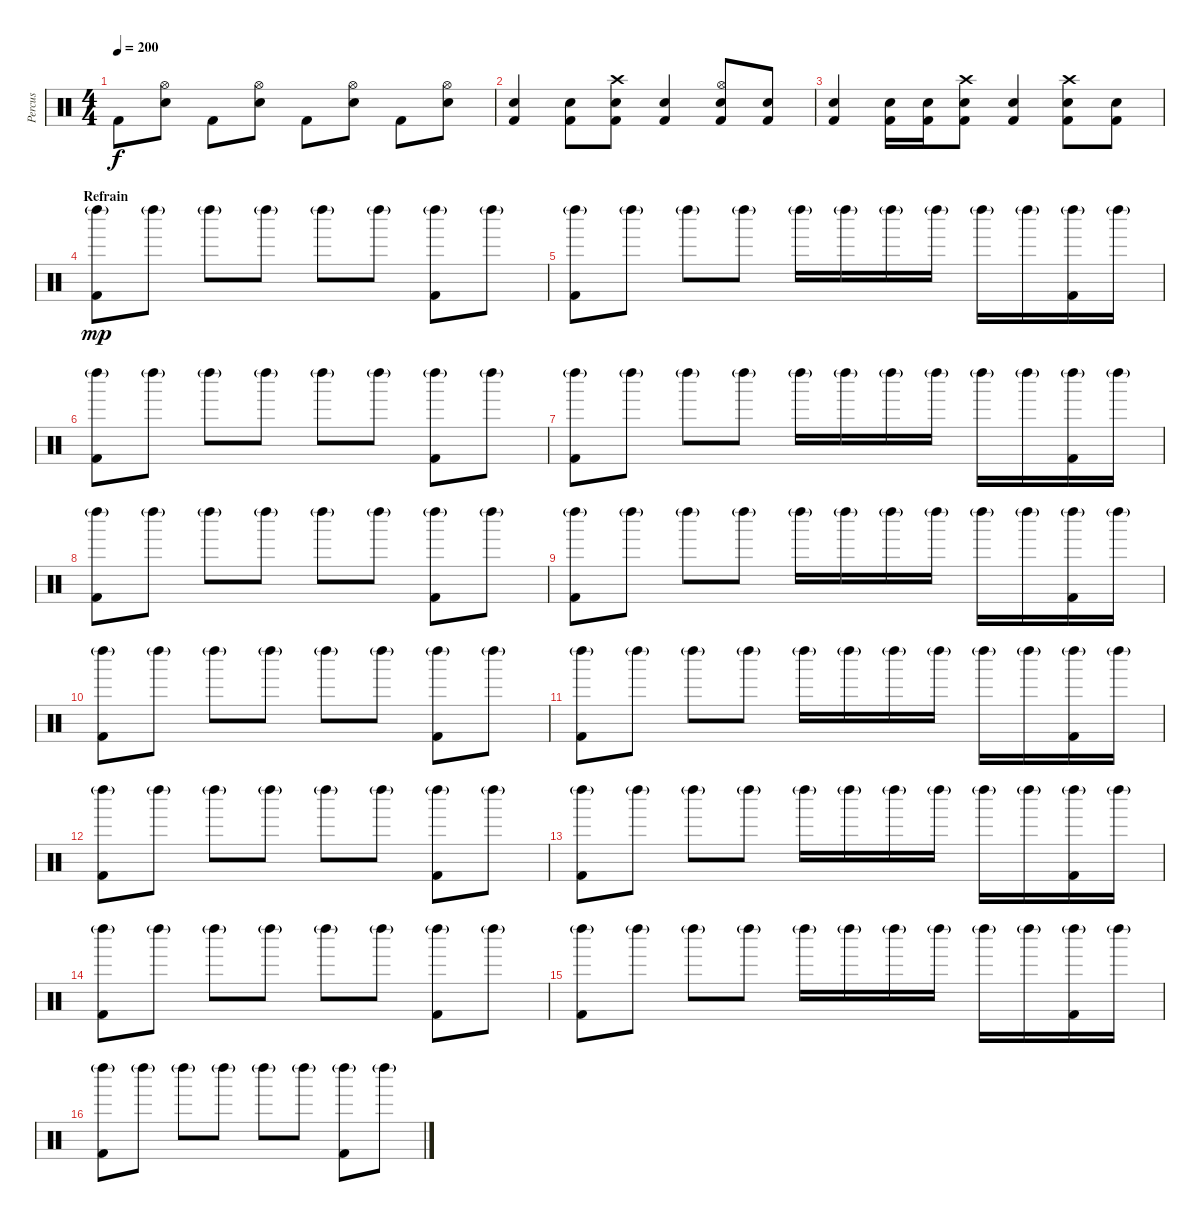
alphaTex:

\track ("Percus" "Percus") {instrument percussion}
\staff {score}
\articulation defaults
\ts (4 4)
\tempo 200
\clef neutral
\ks c "Kick (hit) 2".8{dy f}
("Hi-Hat (open)" "Snare (hit) 2").8 "Kick (hit) 2".8 ("Hi-Hat (open)" "Snare (hit) 2").8 "Kick (hit) 2".8 ("Hi-Hat (open)" "Snare (hit) 2").8 "Kick (hit) 2".8 ("Hi-Hat (open)" "Snare (hit) 2").8 |
("Snare (hit) 2" "Kick (hit) 2").4 ("Snare (hit) 2" "Kick (hit) 2").8 ("Crash high (hit)" "Snare (hit) 2" "Kick (hit) 2").8 ("Snare (hit) 2" "Kick (hit) 2").4 ("Hi-Hat (open)" "Snare (hit) 2" "Kick (hit) 2").8 ("Snare (hit) 2" "Kick (hit) 2").8 |
("Snare (hit) 2" "Kick (hit) 2").4 ("Snare (hit) 2" "Kick (hit) 2").16 ("Snare (hit) 2" "Kick (hit) 2").16 ("Crash high (hit)" "Snare (hit) 2" "Kick (hit) 2").8 ("Snare (hit) 2" "Kick (hit) 2").4 ("Crash high (hit)" "Snare (hit) 2" "Kick (hit) 2").8 ("Snare (hit) 2" "Kick (hit) 2").8 |
\section ("" "Refrain")
("Left Maraca (hit)"{g} "Kick (hit) 2").8{dy mp} "Left Maraca (hit)"{g}.8 "Left Maraca (hit)"{g}.8 "Left Maraca (hit)"{g}.8 "Left Maraca (hit)"{g}.8 "Left Maraca (hit)"{g}.8 ("Left Maraca (hit)"{g} "Kick (hit) 2").8 "Left Maraca (hit)"{g}.8 |
("Left Maraca (hit)"{g} "Kick (hit) 2").8 "Left Maraca (hit)"{g}.8 "Left Maraca (hit)"{g}.8 "Left Maraca (hit)"{g}.8 "Left Maraca (hit)"{g}.16 "Left Maraca (hit)"{g}.16 "Left Maraca (hit)"{g}.16 "Left Maraca (hit)"{g}.16 "Left Maraca (hit)"{g}.16 "Left Maraca (hit)"{g}.16 ("Left Maraca (hit)"{g} "Kick (hit) 2").16 "Left Maraca (hit)"{g}.16 |
("Left Maraca (hit)"{g} "Kick (hit) 2").8 "Left Maraca (hit)"{g}.8 "Left Maraca (hit)"{g}.8 "Left Maraca (hit)"{g}.8 "Left Maraca (hit)"{g}.8 "Left Maraca (hit)"{g}.8 ("Left Maraca (hit)"{g} "Kick (hit) 2").8 "Left Maraca (hit)"{g}.8 |
("Left Maraca (hit)"{g} "Kick (hit) 2").8 "Left Maraca (hit)"{g}.8 "Left Maraca (hit)"{g}.8 "Left Maraca (hit)"{g}.8 "Left Maraca (hit)"{g}.16 "Left Maraca (hit)"{g}.16 "Left Maraca (hit)"{g}.16 "Left Maraca (hit)"{g}.16 "Left Maraca (hit)"{g}.16 "Left Maraca (hit)"{g}.16 ("Left Maraca (hit)"{g} "Kick (hit) 2").16 "Left Maraca (hit)"{g}.16 |
("Left Maraca (hit)"{g} "Kick (hit) 2").8 "Left Maraca (hit)"{g}.8 "Left Maraca (hit)"{g}.8 "Left Maraca (hit)"{g}.8 "Left Maraca (hit)"{g}.8 "Left Maraca (hit)"{g}.8 ("Left Maraca (hit)"{g} "Kick (hit) 2").8 "Left Maraca (hit)"{g}.8 |
("Left Maraca (hit)"{g} "Kick (hit) 2").8 "Left Maraca (hit)"{g}.8 "Left Maraca (hit)"{g}.8 "Left Maraca (hit)"{g}.8 "Left Maraca (hit)"{g}.16 "Left Maraca (hit)"{g}.16 "Left Maraca (hit)"{g}.16 "Left Maraca (hit)"{g}.16 "Left Maraca (hit)"{g}.16 "Left Maraca (hit)"{g}.16 ("Left Maraca (hit)"{g} "Kick (hit) 2").16 "Left Maraca (hit)"{g}.16 |
("Left Maraca (hit)"{g} "Kick (hit) 2").8 "Left Maraca (hit)"{g}.8 "Left Maraca (hit)"{g}.8 "Left Maraca (hit)"{g}.8 "Left Maraca (hit)"{g}.8 "Left Maraca (hit)"{g}.8 ("Left Maraca (hit)"{g} "Kick (hit) 2").8 "Left Maraca (hit)"{g}.8 |
("Left Maraca (hit)"{g} "Kick (hit) 2").8 "Left Maraca (hit)"{g}.8 "Left Maraca (hit)"{g}.8 "Left Maraca (hit)"{g}.8 "Left Maraca (hit)"{g}.16 "Left Maraca (hit)"{g}.16 "Left Maraca (hit)"{g}.16 "Left Maraca (hit)"{g}.16 "Left Maraca (hit)"{g}.16 "Left Maraca (hit)"{g}.16 ("Left Maraca (hit)"{g} "Kick (hit) 2").16 "Left Maraca (hit)"{g}.16 |
("Left Maraca (hit)"{g} "Kick (hit) 2").8 "Left Maraca (hit)"{g}.8 "Left Maraca (hit)"{g}.8 "Left Maraca (hit)"{g}.8 "Left Maraca (hit)"{g}.8 "Left Maraca (hit)"{g}.8 ("Left Maraca (hit)"{g} "Kick (hit) 2").8 "Left Maraca (hit)"{g}.8 |
("Left Maraca (hit)"{g} "Kick (hit) 2").8 "Left Maraca (hit)"{g}.8 "Left Maraca (hit)"{g}.8 "Left Maraca (hit)"{g}.8 "Left Maraca (hit)"{g}.16 "Left Maraca (hit)"{g}.16 "Left Maraca (hit)"{g}.16 "Left Maraca (hit)"{g}.16 "Left Maraca (hit)"{g}.16 "Left Maraca (hit)"{g}.16 ("Left Maraca (hit)"{g} "Kick (hit) 2").16 "Left Maraca (hit)"{g}.16 |
("Left Maraca (hit)"{g} "Kick (hit) 2").8 "Left Maraca (hit)"{g}.8 "Left Maraca (hit)"{g}.8 "Left Maraca (hit)"{g}.8 "Left Maraca (hit)"{g}.8 "Left Maraca (hit)"{g}.8 ("Left Maraca (hit)"{g} "Kick (hit) 2").8 "Left Maraca (hit)"{g}.8 |
("Left Maraca (hit)"{g} "Kick (hit) 2").8 "Left Maraca (hit)"{g}.8 "Left Maraca (hit)"{g}.8 "Left Maraca (hit)"{g}.8 "Left Maraca (hit)"{g}.16 "Left Maraca (hit)"{g}.16 "Left Maraca (hit)"{g}.16 "Left Maraca (hit)"{g}.16 "Left Maraca (hit)"{g}.16 "Left Maraca (hit)"{g}.16 ("Left Maraca (hit)"{g} "Kick (hit) 2").16 "Left Maraca (hit)"{g}.16 |
("Left Maraca (hit)"{g} "Kick (hit) 2").8 "Left Maraca (hit)"{g}.8 "Left Maraca (hit)"{g}.8 "Left Maraca (hit)"{g}.8 "Left Maraca (hit)"{g}.8 "Left Maraca (hit)"{g}.8 ("Left Maraca (hit)"{g} "Kick (hit) 2").8 "Left Maraca (hit)"{g}.8
